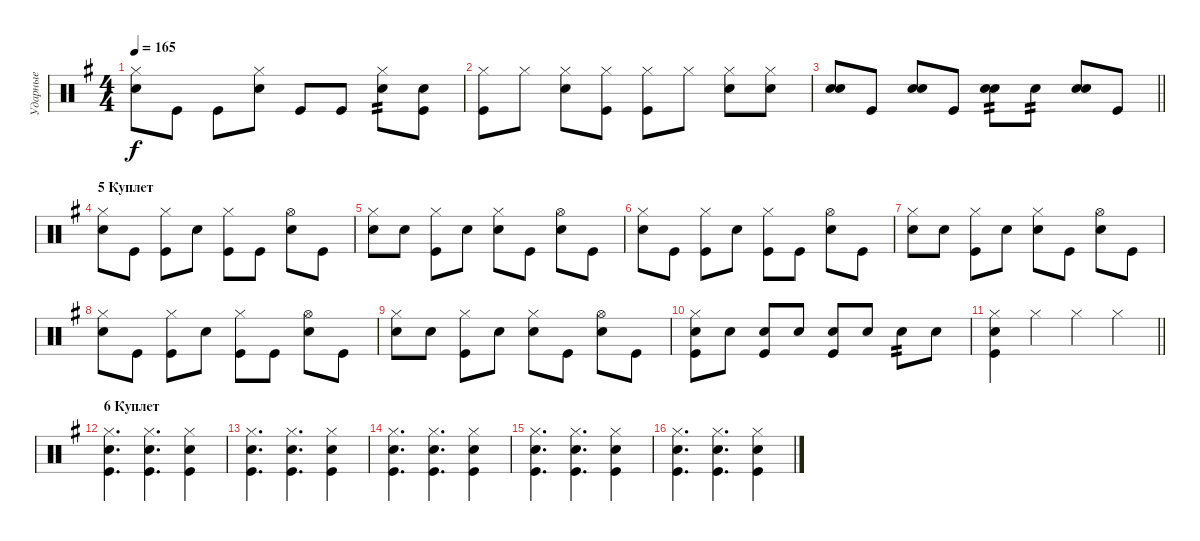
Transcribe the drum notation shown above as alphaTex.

\track ("Ударные" "Ударные") {instrument percussion}
\staff {score}
\articulation defaults
\ts (4 4)
\tempo 165
\clef neutral
\ks eminor
("Hi-Hat (closed)" "Electric Snare (hit)").8{dy f} "Kick (hit)".8 "Kick (hit)".8 ("Hi-Hat (closed)" "Electric Snare (hit)").8 "Kick (hit)".8 "Kick (hit)".8 ("Hi-Hat (closed)" "Electric Snare (hit)").8{tp 2} ("Electric Snare (hit)" "Kick (hit)").8 |
("Hi-Hat (closed)" "Kick (hit)").8 "Hi-Hat (closed)".8 ("Hi-Hat (closed)" "Electric Snare (hit)").8 ("Hi-Hat (closed)" "Kick (hit)").8 ("Hi-Hat (closed)" "Kick (hit)").8 "Hi-Hat (closed)".8 ("Hi-Hat (closed)" "Electric Snare (hit)").8 ("Hi-Hat (closed)" "Electric Snare (hit)").8 |
\barLineRight lightlight
("Electric Snare (hit)" "Electric Snare (hit)").8 "Kick (hit)".8 ("Electric Snare (hit)" "Electric Snare (hit)").8 "Kick (hit)".8 ("Electric Snare (hit)" "Electric Snare (hit)").8{tp 2} "Electric Snare (hit)".8{tp 2} ("Electric Snare (hit)" "Electric Snare (hit)").8 "Kick (hit)".8 |
\section ("" "5 Куплет")
("Hi-Hat (closed)" "Electric Snare (hit)").8 "Kick (hit)".8 ("Hi-Hat (closed)" "Kick (hit)").8 "Electric Snare (hit)".8 ("Hi-Hat (closed)" "Kick (hit)").8 "Kick (hit)".8 ("Hi-Hat (open)" "Electric Snare (hit)").8 "Kick (hit)".8 |
("Hi-Hat (closed)" "Electric Snare (hit)").8 "Electric Snare (hit)".8 ("Hi-Hat (closed)" "Kick (hit)").8 "Electric Snare (hit)".8 ("Hi-Hat (closed)" "Electric Snare (hit)").8 "Kick (hit)".8 ("Hi-Hat (open)" "Electric Snare (hit)").8 "Kick (hit)".8 |
("Hi-Hat (closed)" "Electric Snare (hit)").8 "Kick (hit)".8 ("Hi-Hat (closed)" "Kick (hit)").8 "Electric Snare (hit)".8 ("Hi-Hat (closed)" "Kick (hit)").8 "Kick (hit)".8 ("Hi-Hat (open)" "Electric Snare (hit)").8 "Kick (hit)".8 |
("Hi-Hat (closed)" "Electric Snare (hit)").8 "Electric Snare (hit)".8 ("Hi-Hat (closed)" "Kick (hit)").8 "Electric Snare (hit)".8 ("Hi-Hat (closed)" "Electric Snare (hit)").8 "Kick (hit)".8 ("Hi-Hat (open)" "Electric Snare (hit)").8 "Kick (hit)".8 |
("Hi-Hat (closed)" "Electric Snare (hit)").8 "Kick (hit)".8 ("Hi-Hat (closed)" "Kick (hit)").8 "Electric Snare (hit)".8 ("Hi-Hat (closed)" "Kick (hit)").8 "Kick (hit)".8 ("Hi-Hat (open)" "Electric Snare (hit)").8 "Kick (hit)".8 |
("Hi-Hat (closed)" "Electric Snare (hit)").8 "Electric Snare (hit)".8 ("Hi-Hat (closed)" "Kick (hit)").8 "Electric Snare (hit)".8 ("Hi-Hat (closed)" "Electric Snare (hit)").8 "Kick (hit)".8 ("Hi-Hat (open)" "Electric Snare (hit)").8 "Kick (hit)".8 |
("Hi-Hat (closed)" "Electric Snare (hit)" "Kick (hit)").8 "Electric Snare (hit)".8 ("Electric Snare (hit)" "Kick (hit)").8 "Electric Snare (hit)".8 ("Electric Snare (hit)" "Kick (hit)").8 "Electric Snare (hit)".8 "Electric Snare (hit)".8{tp 2} "Electric Snare (hit)".8 |
\barLineRight lightlight
("Hi-Hat (closed)" "Electric Snare (hit)" "Kick (hit)").4 "Hi-Hat (closed)".4 "Hi-Hat (closed)".4 "Hi-Hat (closed)".4 |
\section ("" "6 Куплет")
("Hi-Hat (closed)" "Electric Snare (hit)" "Kick (hit)").4{d} ("Hi-Hat (closed)" "Electric Snare (hit)" "Kick (hit)").4{d} ("Hi-Hat (closed)" "Electric Snare (hit)" "Kick (hit)").4 |
("Hi-Hat (closed)" "Electric Snare (hit)" "Kick (hit)").4{d} ("Hi-Hat (closed)" "Electric Snare (hit)" "Kick (hit)").4{d} ("Hi-Hat (closed)" "Electric Snare (hit)" "Kick (hit)").4 |
("Hi-Hat (closed)" "Electric Snare (hit)" "Kick (hit)").4{d} ("Hi-Hat (closed)" "Electric Snare (hit)" "Kick (hit)").4{d} ("Hi-Hat (closed)" "Electric Snare (hit)" "Kick (hit)").4 |
("Hi-Hat (closed)" "Electric Snare (hit)" "Kick (hit)").4{d} ("Hi-Hat (closed)" "Electric Snare (hit)" "Kick (hit)").4{d} ("Hi-Hat (closed)" "Electric Snare (hit)" "Kick (hit)").4 |
("Hi-Hat (closed)" "Electric Snare (hit)" "Kick (hit)").4{d} ("Hi-Hat (closed)" "Electric Snare (hit)" "Kick (hit)").4{d} ("Hi-Hat (closed)" "Electric Snare (hit)" "Kick (hit)").4
